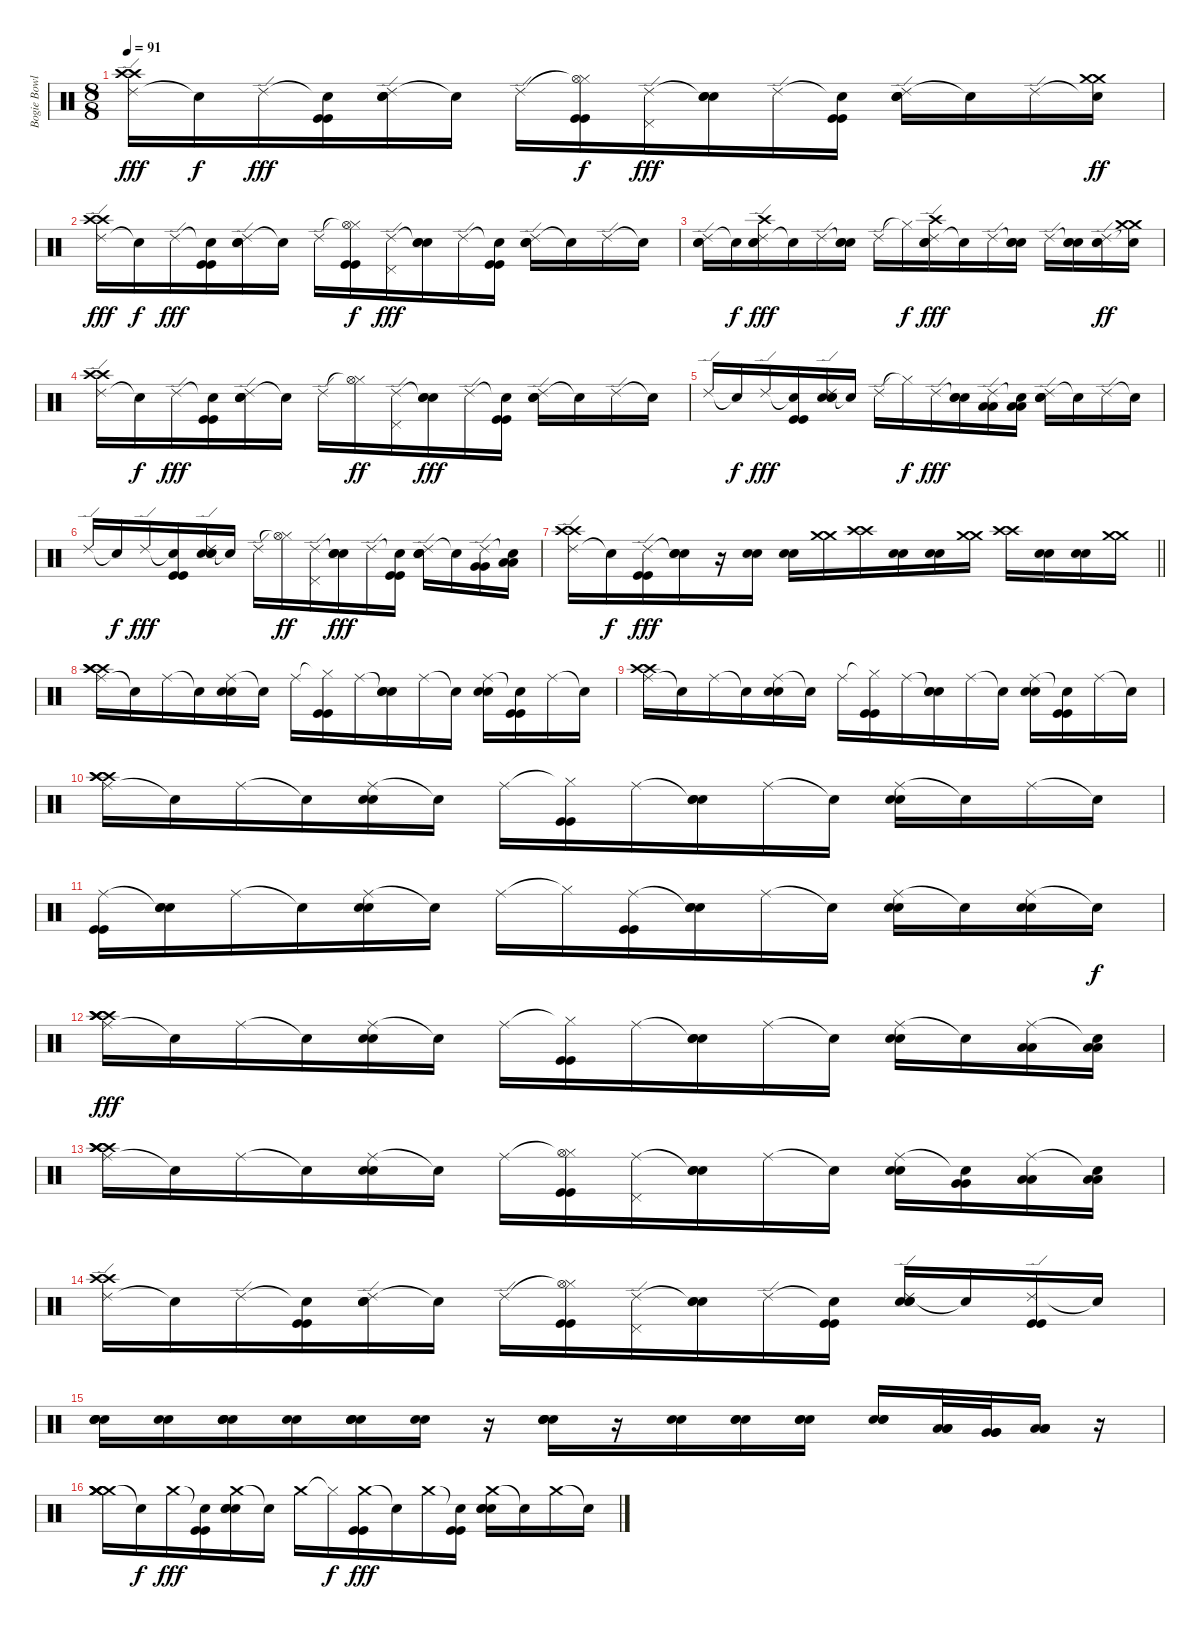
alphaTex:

\track ("Bogie Bowles Drums" "Bogie Bowl") {instrument percussion}
\staff {score}
\articulation defaults
\ts (8 8)
\tempo 91
\clef neutral
\ks c
("Ride (edge) 2" "Crash high (hit)" "Crash high (hit)").16{dy fff} "Snare (hit)"{t}.16{dy f} "Ride (edge) 2".16{dy fff} ("Snare (hit)"{t} "Kick (hit)" "Kick (hit)").16 ("Ride (edge) 2" "Snare (hit) 2" "Snare (hit) 2" "Snare (hit) 2").16 "Snare (hit)"{t}.16 "Ride (edge) 2".16 ("Hi-Hat (closed)"{t} "Hi-Hat (open)" "Kick (hit)" "Kick (hit)").16{dy f} ("Ride (edge) 2" "Pedal Hi-Hat (hit)").16{dy fff} ("Snare (hit)"{t} "Snare (hit) 2" "Snare (hit) 2").16 "Ride (edge) 2".16 ("Snare (hit)"{t} "Kick (hit)" "Kick (hit)").16 ("Ride (edge) 2" "Snare (hit) 2" "Snare (hit) 2" "Snare (hit) 2").16 "Snare (hit)"{t}.16 "Ride (edge) 2".16 ("Snare (hit)"{t} "Crash medium (hit)" "Crash medium (hit)").16{dy ff} |
("Ride (edge) 2" "Crash high (hit)" "Crash high (hit)").16{dy fff} "Snare (hit)"{t}.16{dy f} "Ride (edge) 2".16{dy fff} ("Snare (hit)"{t} "Kick (hit)" "Kick (hit)").16 ("Ride (edge) 2" "Snare (hit) 2" "Snare (hit) 2" "Snare (hit) 2").16 "Snare (hit)"{t}.16 "Ride (edge) 2".16 ("Hi-Hat (closed)"{t} "Hi-Hat (open)" "Kick (hit)" "Kick (hit)").16{dy f} ("Ride (edge) 2" "Pedal Hi-Hat (hit)").16{dy fff} ("Snare (hit)"{t} "Snare (hit) 2" "Snare (hit) 2").16 "Ride (edge) 2".16 ("Snare (hit)"{t} "Kick (hit)" "Kick (hit)").16 ("Ride (edge) 2" "Snare (hit) 2" "Snare (hit) 2" "Snare (hit) 2").16 "Snare (hit)"{t}.16 "Ride (edge) 2".16 "Snare (hit)"{t}.16 |
("Ride (edge) 2" "Snare (hit) 2" "Snare (hit) 2").16 "Snare (hit)"{t}.16{dy f} ("Ride (edge) 2" "Snare (hit) 2" "Snare (hit) 2" "Crash high (hit)").16{dy fff} "Snare (hit)"{t}.16 "Ride (edge) 2".16 ("Snare (hit)"{t} "Snare (hit) 2" "Snare (hit) 2").16 "Ride (edge) 2".16 "Hi-Hat (closed)"{t}.16{dy f} ("Ride (edge) 2" "Snare (hit) 2" "Snare (hit) 2" "Crash high (hit)").16{dy fff} "Snare (hit)"{t}.16 "Ride (edge) 2".16 ("Snare (hit)"{t} "Snare (hit) 2" "Snare (hit) 2").16 "Ride (edge) 2".16 ("Snare (hit)"{t} "Snare (hit) 2" "Snare (hit) 2").16 ("Ride (edge) 2" "Snare (hit) 2" "Snare (hit) 2").16{dy ff} ("Snare (hit)"{t} "Crash medium (hit)" "Crash medium (hit)").16 |
("Ride (edge) 2" "Crash high (hit)" "Crash high (hit)").16 "Snare (hit)"{t}.16{dy f} "Ride (edge) 2".16{dy fff} ("Snare (hit)"{t} "Kick (hit)" "Kick (hit)").16 ("Ride (edge) 2" "Snare (hit) 2" "Snare (hit) 2" "Snare (hit) 2").16 "Snare (hit)"{t}.16 "Ride (edge) 2".16 ("Hi-Hat (closed)"{t} "Hi-Hat (open)").16{dy ff} ("Ride (edge) 2" "Pedal Hi-Hat (hit)").16 ("Snare (hit)"{t} "Snare (hit) 2" "Snare (hit) 2").16{dy fff} "Ride (edge) 2".16 ("Snare (hit)"{t} "Kick (hit)" "Kick (hit)").16 ("Ride (edge) 2" "Snare (hit) 2" "Snare (hit) 2" "Snare (hit) 2").16 "Snare (hit)"{t}.16 "Ride (edge) 2".16 "Snare (hit)"{t}.16 |
"Ride (edge) 2".16 "Snare (hit)"{t}.16{dy f} "Ride (edge) 2".16{dy fff} ("Snare (hit)"{t} "Kick (hit)" "Kick (hit)").16 ("Ride (edge) 2" "Snare (hit) 2" "Snare (hit) 2" "Snare (hit) 2").16 "Snare (hit)"{t}.16 "Ride (edge) 2".16 "Hi-Hat (closed)"{t}.16{dy f} "Ride (edge) 2".16{dy fff} ("Snare (hit)"{t} "Snare (hit) 2" "Snare (hit) 2").16 ("Ride (edge) 2" "Low Tom (hit)" "Low Tom (hit)").16 ("Snare (hit)"{t} "Low Tom (hit)" "Low Tom (hit)").16 ("Ride (edge) 2" "Snare (hit) 2" "Snare (hit) 2" "Snare (hit) 2").16 "Snare (hit)"{t}.16 "Ride (edge) 2".16 "Snare (hit)"{t}.16 |
"Ride (edge) 2".16 "Snare (hit)"{t}.16{dy f} "Ride (edge) 2".16{dy fff} ("Snare (hit)"{t} "Kick (hit)" "Kick (hit)").16 ("Ride (edge) 2" "Snare (hit) 2" "Snare (hit) 2" "Snare (hit) 2").16 "Snare (hit)"{t}.16 "Ride (edge) 2".16 ("Hi-Hat (closed)"{t} "Hi-Hat (open)").16{dy ff} ("Ride (edge) 2" "Pedal Hi-Hat (hit)").16 ("Snare (hit)"{t} "Snare (hit) 2" "Snare (hit) 2").16{dy fff} "Ride (edge) 2".16 ("Snare (hit)"{t} "Kick (hit)" "Kick (hit)").16 ("Ride (edge) 2" "Snare (hit) 2" "Snare (hit) 2" "Snare (hit) 2").16 "Snare (hit)"{t}.16 ("Ride (edge) 2" "Very Low Tom (hit)" "Very Low Tom (hit)").16 ("Snare (hit)"{t} "Low Floor Tom (hit)" "Low Floor Tom (hit)").16 |
\barLineRight lightlight
("Ride (edge) 2" "Crash high (hit)" "Crash high (hit)").16 "Snare (hit)"{t}.16{dy f} ("Ride (edge) 2" "Kick (hit)" "Kick (hit)").16{dy fff} ("Snare (hit)"{t} "Snare (hit) 2" "Snare (hit) 2").16 r.16 ("Snare (hit) 2" "Snare (hit) 2").16 ("Snare (hit) 2" "Snare (hit) 2").16 ("Crash medium (hit)" "Crash medium (hit)").16 ("Crash high (hit)" "Crash high (hit)").16 ("Snare (hit) 2" "Snare (hit) 2").16 ("Snare (hit) 2" "Snare (hit) 2").16 ("Crash medium (hit)" "Crash medium (hit)").16 ("Crash high (hit)" "Crash high (hit)").16 ("Snare (hit) 2" "Snare (hit) 2").16 ("Snare (hit) 2" "Snare (hit) 2").16 ("Crash medium (hit)" "Crash medium (hit)").16 |
("Ride (middle)" "Crash high (hit)" "Crash high (hit)" "Crash high (hit)").16 "Snare (hit)"{t}.16 "Ride (middle)".16 "Snare (hit)"{t}.16 ("Ride (middle)" "Snare (hit) 2" "Snare (hit) 2").16 "Snare (hit)"{t}.16 "Ride (middle)".16 ("Hi-Hat (closed)"{t} "Kick (hit)" "Kick (hit)").16 "Ride (middle)".16 ("Snare (hit)"{t} "Snare (hit) 2" "Snare (hit) 2").16 "Ride (middle)".16 "Snare (hit)"{t}.16 ("Ride (middle)" "Snare (hit) 2" "Snare (hit) 2").16 ("Snare (hit)"{t} "Kick (hit)" "Kick (hit)").16 "Ride (middle)".16 "Snare (hit)"{t}.16 |
("Ride (middle)" "Crash high (hit)" "Crash high (hit)").16 "Snare (hit)"{t}.16 "Ride (middle)".16 "Snare (hit)"{t}.16 ("Ride (middle)" "Snare (hit) 2" "Snare (hit) 2").16 "Snare (hit)"{t}.16 "Ride (middle)".16 ("Hi-Hat (closed)"{t} "Kick (hit)" "Kick (hit)").16 "Ride (middle)".16 ("Snare (hit)"{t} "Snare (hit) 2" "Snare (hit) 2").16 "Ride (middle)".16 "Snare (hit)"{t}.16 ("Ride (middle)" "Snare (hit) 2" "Snare (hit) 2").16 ("Snare (hit)"{t} "Kick (hit)" "Kick (hit)").16 "Ride (middle)".16 "Snare (hit)"{t}.16 |
("Ride (middle)" "Crash high (hit)" "Crash high (hit)" "Crash high (hit)").16 "Snare (hit)"{t}.16 "Ride (middle)".16 "Snare (hit)"{t}.16 ("Ride (middle)" "Snare (hit) 2" "Snare (hit) 2").16 "Snare (hit)"{t}.16 "Ride (middle)".16 ("Hi-Hat (closed)"{t} "Kick (hit)" "Kick (hit)").16 "Ride (middle)".16 ("Snare (hit)"{t} "Snare (hit) 2" "Snare (hit) 2").16 "Ride (middle)".16 "Snare (hit)"{t}.16 ("Ride (middle)" "Snare (hit) 2" "Snare (hit) 2").16 "Snare (hit)"{t}.16 "Ride (middle)".16 "Snare (hit)"{t}.16 |
("Ride (middle)" "Kick (hit)" "Kick (hit)").16 ("Snare (hit)"{t} "Snare (hit) 2" "Snare (hit) 2").16 "Ride (middle)".16 "Snare (hit)"{t}.16 ("Ride (middle)" "Snare (hit) 2" "Snare (hit) 2").16 "Snare (hit)"{t}.16 "Ride (middle)".16 "Hi-Hat (closed)"{t}.16 ("Ride (middle)" "Kick (hit)" "Kick (hit)").16 ("Snare (hit)"{t} "Snare (hit) 2" "Snare (hit) 2").16 "Ride (middle)".16 "Snare (hit)"{t}.16 ("Ride (middle)" "Snare (hit) 2" "Snare (hit) 2").16 "Snare (hit)"{t}.16 ("Ride (middle)" "Snare (hit) 2" "Snare (hit) 2").16 "Snare (hit)"{t}.16{dy f} |
("Ride (middle)" "Crash high (hit)" "Crash high (hit)" "Crash high (hit)" "Crash high (hit)").16{dy fff} "Snare (hit)"{t}.16 "Ride (middle)".16 "Snare (hit)"{t}.16 ("Ride (middle)" "Snare (hit) 2" "Snare (hit) 2").16 "Snare (hit)"{t}.16 "Ride (middle)".16 ("Hi-Hat (closed)"{t} "Kick (hit)" "Kick (hit)").16 "Ride (middle)".16 ("Snare (hit)"{t} "Snare (hit) 2" "Snare (hit) 2").16 "Ride (middle)".16 "Snare (hit)"{t}.16 ("Ride (middle)" "Snare (hit) 2" "Snare (hit) 2").16 "Snare (hit)"{t}.16 ("Ride (middle)" "Low Tom (hit)" "Low Tom (hit)").16 ("Snare (hit)"{t} "Low Tom (hit)" "Low Tom (hit)").16 |
("Ride (middle)" "Crash high (hit)" "Crash high (hit)" "Crash high (hit)" "Crash high (hit)").16 "Snare (hit)"{t}.16 "Ride (middle)".16 "Snare (hit)"{t}.16 ("Ride (middle)" "Snare (hit) 2" "Snare (hit) 2").16 "Snare (hit)"{t}.16 "Ride (middle)".16 ("Hi-Hat (closed)"{t} "Hi-Hat (open)" "Kick (hit)" "Kick (hit)").16 ("Ride (middle)" "Pedal Hi-Hat (hit)").16 ("Snare (hit)"{t} "Snare (hit) 2" "Snare (hit) 2").16 "Ride (middle)".16 "Snare (hit)"{t}.16 ("Ride (middle)" "Snare (hit) 2" "Snare (hit) 2").16 ("Snare (hit)"{t} "Very Low Tom (hit)" "Very Low Tom (hit)").16 ("Ride (middle)" "Low Floor Tom (hit)" "Low Floor Tom (hit)").16 ("Snare (hit)"{t} "Low Floor Tom (hit)" "Low Floor Tom (hit)").16 |
("Ride (edge) 2" "Crash high (hit)" "Crash high (hit)").16 "Snare (hit)"{t}.16 "Ride (edge) 2".16 ("Snare (hit)"{t} "Kick (hit)" "Kick (hit)").16 ("Ride (edge) 2" "Snare (hit) 2" "Snare (hit) 2" "Snare (hit) 2").16 "Snare (hit)"{t}.16 "Ride (edge) 2".16 ("Hi-Hat (closed)"{t} "Kick (hit)" "Kick (hit)" "Hi-Hat (open)").16 ("Ride (edge) 2" "Pedal Hi-Hat (hit)").16 ("Snare (hit)"{t} "Snare (hit) 2" "Snare (hit) 2").16 "Ride (edge) 2".16 ("Snare (hit)"{t} "Kick (hit)" "Kick (hit)").16 ("Ride (edge) 2" "Snare (hit) 2" "Snare (hit) 2" "Snare (hit) 2").16 "Snare (hit)"{t}.16 ("Ride (edge) 2" "Kick (hit)" "Kick (hit)").16 "Snare (hit)"{t}.16 |
("Snare (hit) 2" "Snare (hit) 2" "Snare (hit) 2" "Snare (hit) 2").16 ("Snare (hit) 2" "Snare (hit) 2").16 ("Snare (hit) 2" "Snare (hit) 2" "Snare (hit) 2" "Snare (hit) 2").16 ("Snare (hit) 2" "Snare (hit) 2").16 ("Snare (hit) 2" "Snare (hit) 2" "Snare (hit) 2" "Snare (hit) 2").16 ("Snare (hit) 2" "Snare (hit) 2").16 r.16 ("Snare (hit) 2" "Snare (hit) 2" "Snare (hit) 2" "Snare (hit) 2").16 r.16 ("Snare (hit) 2" "Snare (hit) 2").16 ("Snare (hit) 2" "Snare (hit) 2" "Snare (hit) 2").16 ("Snare (hit) 2" "Snare (hit) 2" "Snare (hit) 2").16 ("Snare (hit) 2" "Snare (hit) 2" "Snare (hit) 2").16 ("Low Tom (hit)" "Low Tom (hit)" "Low Tom (hit)").32 ("Very Low Tom (hit)" "Very Low Tom (hit)" "Very Low Tom (hit)").32 ("Low Floor Tom (hit)" "Low Floor Tom (hit)" "Low Floor Tom (hit)").16 r.16 |
("Crash medium (hit)" "Crash medium (hit)" "Crash medium (hit)" "Crash medium (hit)" "Crash medium (hit)").16 "Snare (hit)"{t}.16{dy f} "Crash medium (hit)".16{dy fff} ("Snare (hit)"{t} "Kick (hit)" "Kick (hit)").16 ("Crash medium (hit)" "Snare (hit) 2" "Snare (hit) 2" "Snare (hit) 2").16 "Snare (hit)"{t}.16 "Crash medium (hit)".16 "Hi-Hat (closed)"{t}.16{dy f} ("Crash medium (hit)" "Kick (hit)" "Kick (hit)").16{dy fff} "Snare (hit)"{t}.16 "Crash medium (hit)".16 ("Snare (hit)"{t} "Kick (hit)" "Kick (hit)").16 ("Crash medium (hit)" "Snare (hit) 2" "Snare (hit) 2" "Snare (hit) 2").16 "Snare (hit)"{t}.16 "Crash medium (hit)".16 "Snare (hit)"{t}.16
